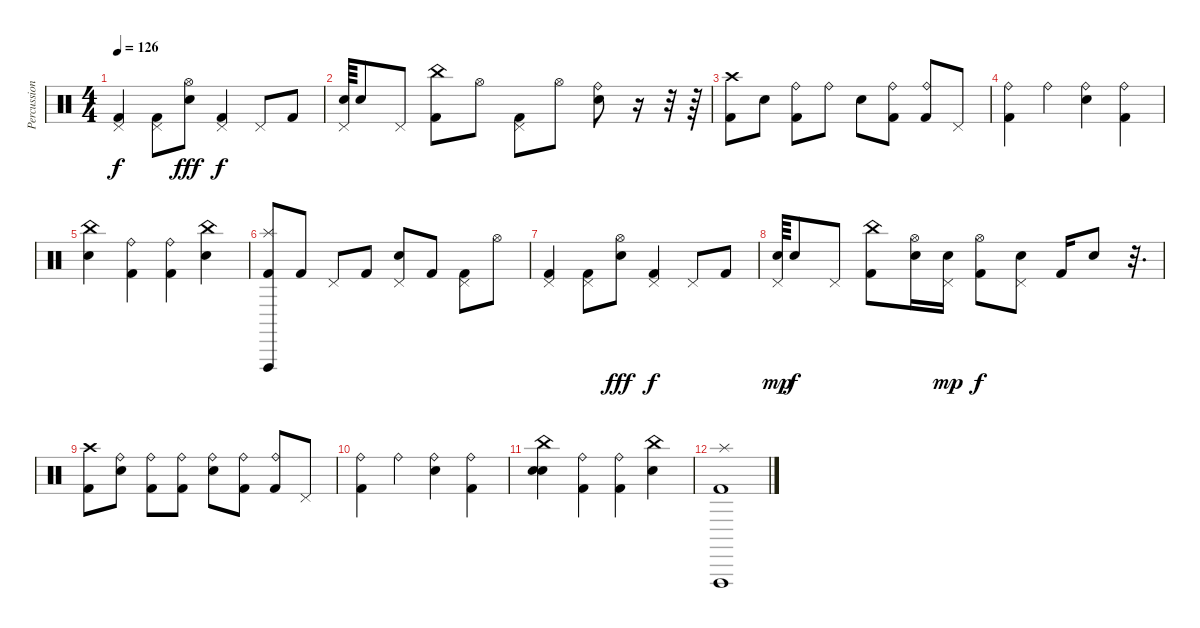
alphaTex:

\track ("Percussions" "Percussion") {instrument percussion}
\staff {score}
\articulation defaults
\ts (4 4)
\tempo 126
\clef neutral
\ks c
("Pedal Hi-Hat (hit)" "Kick (hit) 2").4{dy f} ("Pedal Hi-Hat (hit)" "Kick (hit) 2").8 ("Hi-Hat (open)" "Electric Snare (hit)").8{dy fff} ("Pedal Hi-Hat (hit)" "Kick (hit) 2").4{dy f} "Pedal Hi-Hat (hit)".8 "Kick (hit) 2".8 |
("Pedal Hi-Hat (hit)" "Electric Snare (hit)").64 "Electric Snare (hit)".8 "Pedal Hi-Hat (hit)".8 ("China (hit)" "Kick (hit) 2").8 "Hi-Hat (open)".8 ("Pedal Hi-Hat (hit)" "Kick (hit) 2").8 "Hi-Hat (open)".8 ("Ride (bell)" "Electric Snare (hit)").8 r.16 r.32 r.64 |
("Crash high (hit)" "Kick (hit) 2").8 "Electric Snare (hit)".8 ("Ride (bell)" "Kick (hit) 2").8 "Ride (bell)".8 "Electric Snare (hit)".8 ("Ride (bell)" "Kick (hit) 2").8 ("Ride (bell)" "Kick (hit) 2").8 "Pedal Hi-Hat (hit)".8 |
("Ride (bell)" "Kick (hit) 2").4 "Ride (bell)".4 ("Ride (bell)" "Electric Snare (hit)").4 ("Ride (bell)" "Kick (hit) 2").4 |
("China (hit)" "Electric Snare (hit)").4 ("Ride (bell)" "Kick (hit) 2").4 ("Ride (bell)" "Kick (hit) 2").4 ("China (hit)" "Electric Snare (hit)").4 |
("Splash (hit)" "Vibraslap (hit)" "Kick (hit) 2").8 "Kick (hit) 2".8 "Pedal Hi-Hat (hit)".8 "Kick (hit) 2".8 ("Pedal Hi-Hat (hit)" "Electric Snare (hit)").8 "Kick (hit) 2".8 ("Pedal Hi-Hat (hit)" "Kick (hit) 2").8 "Hi-Hat (open)".8 |
("Pedal Hi-Hat (hit)" "Kick (hit) 2").4 ("Pedal Hi-Hat (hit)" "Kick (hit) 2").8 ("Hi-Hat (open)" "Electric Snare (hit)").8{dy fff} ("Pedal Hi-Hat (hit)" "Kick (hit) 2").4{dy f} "Pedal Hi-Hat (hit)".8 "Kick (hit) 2".8 |
("Pedal Hi-Hat (hit)" "Electric Snare (hit)").64{dy mp} "Electric Snare (hit)".8{dy f} "Pedal Hi-Hat (hit)".8 ("China (hit)" "Kick (hit) 2").8 ("Hi-Hat (open)" "Electric Snare (hit)").16 ("Pedal Hi-Hat (hit)" "Electric Snare (hit)").16{dy mp} ("Hi-Hat (open)" "Kick (hit) 2").8{dy f} ("Pedal Hi-Hat (hit)" "Electric Snare (hit)").8 "Kick (hit) 2".16 "Electric Snare (hit)".8 r.32{d} |
("Crash high (hit)" "Kick (hit) 2").8 ("Ride (bell)" "Electric Snare (hit)").8 ("Ride (bell)" "Kick (hit) 2").8 ("Ride (bell)" "Kick (hit) 2").8 ("Ride (bell)" "Electric Snare (hit)").8 ("Ride (bell)" "Kick (hit) 2").8 ("Ride (bell)" "Kick (hit) 2").8 "Pedal Hi-Hat (hit)".8 |
("Ride (bell)" "Kick (hit) 2").4 "Ride (bell)".4 ("Ride (bell)" "Electric Snare (hit)").4 ("Ride (bell)" "Kick (hit) 2").4 |
("China (hit)" "Electric Snare (hit)" "Snare (hit) 2").4 ("Ride (bell)" "Kick (hit) 2").4 ("Ride (bell)" "Kick (hit) 2").4 ("China (hit)" "Electric Snare (hit)").4 |
("Splash (hit)" "Vibraslap (hit)" "Kick (hit) 2").1
